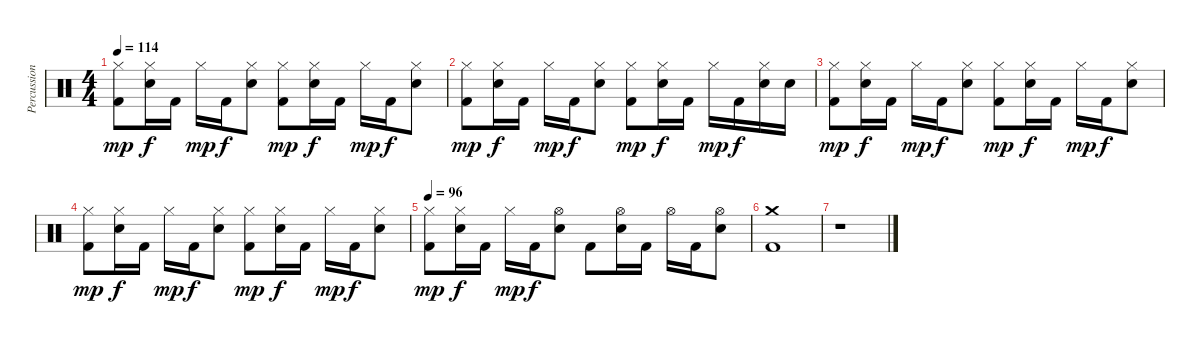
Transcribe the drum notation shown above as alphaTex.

\track ("Percussions" "Percussion") {instrument percussion}
\staff {score}
\articulation defaults
\ts (4 4)
\tempo 114
\clef neutral
\ks c
("Kick (hit) 2" "Hi-Hat (closed)").8{dy mp} ("Electric Snare (hit)" "Hi-Hat (closed)").16{dy f} "Kick (hit) 2".16 "Hi-Hat (closed)".16{dy mp} "Kick (hit) 2".16{dy f} ("Electric Snare (hit)" "Hi-Hat (closed)").8 ("Kick (hit) 2" "Hi-Hat (closed)").8{dy mp} ("Electric Snare (hit)" "Hi-Hat (closed)").16{dy f} "Kick (hit) 2".16 "Hi-Hat (closed)".16{dy mp} "Kick (hit) 2".16{dy f} ("Electric Snare (hit)" "Hi-Hat (closed)").8 |
("Kick (hit) 2" "Hi-Hat (closed)").8{dy mp} ("Electric Snare (hit)" "Hi-Hat (closed)").16{dy f} "Kick (hit) 2".16 "Hi-Hat (closed)".16{dy mp} "Kick (hit) 2".16{dy f} ("Electric Snare (hit)" "Hi-Hat (closed)").8 ("Kick (hit) 2" "Hi-Hat (closed)").8{dy mp} ("Electric Snare (hit)" "Hi-Hat (closed)").16{dy f} "Kick (hit) 2".16 "Hi-Hat (closed)".16{dy mp} "Kick (hit) 2".16{dy f} ("Electric Snare (hit)" "Hi-Hat (closed)").16 "Electric Snare (hit)".16 |
("Kick (hit) 2" "Hi-Hat (closed)").8{dy mp} ("Electric Snare (hit)" "Hi-Hat (closed)").16{dy f} "Kick (hit) 2".16 "Hi-Hat (closed)".16{dy mp} "Kick (hit) 2".16{dy f} ("Electric Snare (hit)" "Hi-Hat (closed)").8 ("Kick (hit) 2" "Hi-Hat (closed)").8{dy mp} ("Electric Snare (hit)" "Hi-Hat (closed)").16{dy f} "Kick (hit) 2".16 "Hi-Hat (closed)".16{dy mp} "Kick (hit) 2".16{dy f} ("Electric Snare (hit)" "Hi-Hat (closed)").8 |
("Kick (hit) 2" "Hi-Hat (closed)").8{dy mp} ("Electric Snare (hit)" "Hi-Hat (closed)").16{dy f} "Kick (hit) 2".16 "Hi-Hat (closed)".16{dy mp} "Kick (hit) 2".16{dy f} ("Electric Snare (hit)" "Hi-Hat (closed)").8 ("Kick (hit) 2" "Hi-Hat (closed)").8{dy mp} ("Electric Snare (hit)" "Hi-Hat (closed)").16{dy f} "Kick (hit) 2".16 "Hi-Hat (closed)".16{dy mp} "Kick (hit) 2".16{dy f} ("Electric Snare (hit)" "Hi-Hat (closed)").8 |
\tempo 96
("Kick (hit) 2" "Hi-Hat (closed)").8{dy mp} ("Electric Snare (hit)" "Hi-Hat (closed)").16{dy f} "Kick (hit) 2".16 "Hi-Hat (closed)".16{dy mp} "Kick (hit) 2".16{dy f} ("Electric Snare (hit)" "Hi-Hat (open)").8 "Kick (hit) 2".8 ("Electric Snare (hit)" "Hi-Hat (open)").16 "Kick (hit) 2".16 "Hi-Hat (open)".16 "Kick (hit) 2".16 ("Electric Snare (hit)" "Hi-Hat (open)").8 |
("Kick (hit) 2" "Crash medium (hit)").1 |
r.1
